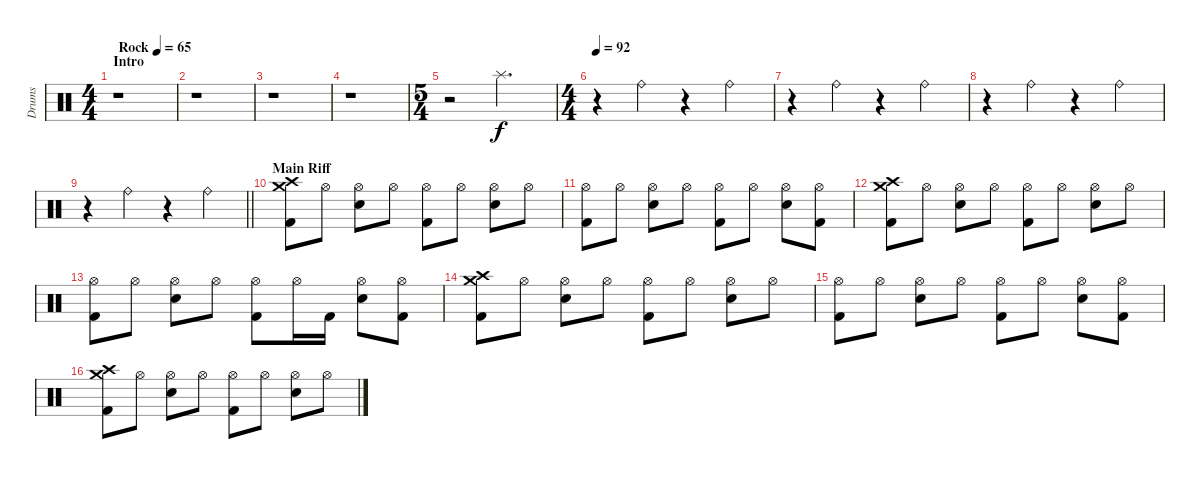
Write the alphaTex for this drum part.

\track ("Drums" "Drums") {instrument percussion}
\staff {score}
\articulation defaults
\ts (4 4)
\section ("" "Intro")
\tempo (65 "Rock")
\clef neutral
\ks c
r.1{dy f} |
r.1 |
r.1 |
r.1 |
\ts (5 4)
r.2 "Splash (hit)".2{d volume 16 balance 8} |
\ts (4 4)
\tempo 92
r.4 "Ride (bell)".4 r.4 "Ride (bell)".4 |
r.4 "Ride (bell)".4 r.4 "Ride (bell)".4 |
r.4 "Ride (bell)".4 r.4 "Ride (bell)".4 |
\barLineRight lightlight
r.4 "Ride (bell)".4 r.4 "Ride (bell)".4 |
\section ("" "Main Riff")
("Crash medium (hit)" "Crash high (hit)" "Kick (hit) 2").8 "Hi-Hat (open)".8 ("Hi-Hat (open)" "Electric Snare (hit)").8 "Hi-Hat (open)".8 ("Hi-Hat (open)" "Kick (hit) 2").8 "Hi-Hat (open)".8 ("Hi-Hat (open)" "Electric Snare (hit)").8 "Hi-Hat (open)".8 |
("Hi-Hat (open)" "Kick (hit) 2").8 "Hi-Hat (open)".8 ("Hi-Hat (open)" "Electric Snare (hit)").8 "Hi-Hat (open)".8 ("Hi-Hat (open)" "Kick (hit) 2").8 "Hi-Hat (open)".8 ("Hi-Hat (open)" "Electric Snare (hit)").8 ("Hi-Hat (open)" "Kick (hit) 2").8 |
("Crash medium (hit)" "Crash high (hit)" "Kick (hit) 2").8 "Hi-Hat (open)".8 ("Hi-Hat (open)" "Electric Snare (hit)").8 "Hi-Hat (open)".8 ("Hi-Hat (open)" "Kick (hit) 2").8 "Hi-Hat (open)".8 ("Hi-Hat (open)" "Electric Snare (hit)").8 "Hi-Hat (open)".8 |
("Hi-Hat (open)" "Kick (hit) 2").8 "Hi-Hat (open)".8 ("Hi-Hat (open)" "Electric Snare (hit)").8 "Hi-Hat (open)".8 ("Hi-Hat (open)" "Kick (hit) 2").8 "Hi-Hat (open)".16 "Kick (hit) 2".16 ("Hi-Hat (open)" "Electric Snare (hit)").8 ("Hi-Hat (open)" "Kick (hit) 2").8 |
("Crash medium (hit)" "Crash high (hit)" "Kick (hit) 2").8 "Hi-Hat (open)".8 ("Hi-Hat (open)" "Electric Snare (hit)").8 "Hi-Hat (open)".8 ("Hi-Hat (open)" "Kick (hit) 2").8 "Hi-Hat (open)".8 ("Hi-Hat (open)" "Electric Snare (hit)").8 "Hi-Hat (open)".8 |
("Hi-Hat (open)" "Kick (hit) 2").8 "Hi-Hat (open)".8 ("Hi-Hat (open)" "Electric Snare (hit)").8 "Hi-Hat (open)".8 ("Hi-Hat (open)" "Kick (hit) 2").8 "Hi-Hat (open)".8 ("Hi-Hat (open)" "Electric Snare (hit)").8 ("Hi-Hat (open)" "Kick (hit) 2").8 |
("Crash medium (hit)" "Crash high (hit)" "Kick (hit) 2").8 "Hi-Hat (open)".8 ("Hi-Hat (open)" "Electric Snare (hit)").8 "Hi-Hat (open)".8 ("Hi-Hat (open)" "Kick (hit) 2").8 "Hi-Hat (open)".8 ("Hi-Hat (open)" "Electric Snare (hit)").8 "Hi-Hat (open)".8
